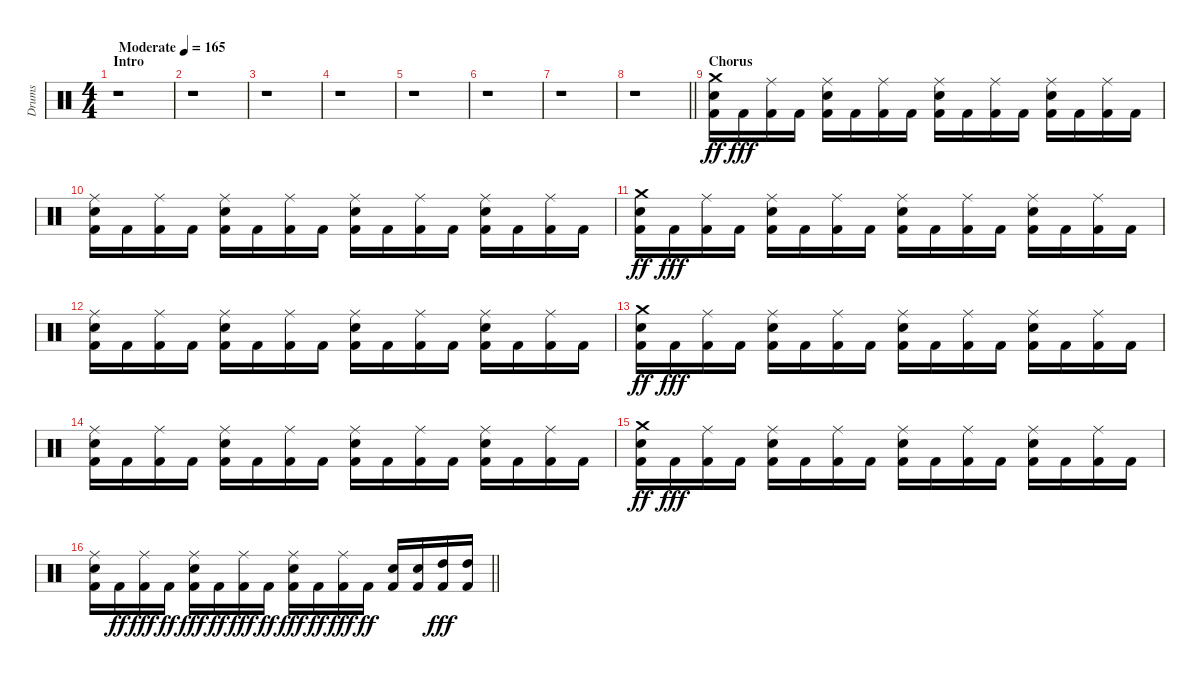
\track ("Drums" "Drums") {instrument percussion}
\staff {score}
\articulation defaults
\ts (4 4)
\section ("" "Intro")
\tempo (165 "Moderate")
\clef neutral
\ks c
r.1{dy ff} |
r.1 |
r.1 |
r.1 |
r.1 |
r.1 |
r.1 |
\barLineRight lightlight
r.1 |
\section ("" "Chorus")
("Kick (hit) 2" "Snare (hit) 2" "Crash medium (hit)").16 "Kick (hit) 2".16{dy fff} ("Kick (hit) 2" "Ride (middle)").16 "Kick (hit) 2".16 ("Kick (hit) 2" "Snare (hit) 2" "Ride (middle)").16 "Kick (hit) 2".16 ("Kick (hit) 2" "Ride (middle)").16 "Kick (hit) 2".16 ("Kick (hit) 2" "Snare (hit) 2" "Ride (middle)").16 "Kick (hit) 2".16 ("Kick (hit) 2" "Ride (middle)").16 "Kick (hit) 2".16 ("Kick (hit) 2" "Snare (hit) 2" "Ride (middle)").16 "Kick (hit) 2".16 ("Kick (hit) 2" "Ride (middle)").16 "Kick (hit) 2".16 |
("Kick (hit) 2" "Snare (hit) 2" "Ride (middle)").16 "Kick (hit) 2".16 ("Kick (hit) 2" "Ride (middle)").16 "Kick (hit) 2".16 ("Kick (hit) 2" "Snare (hit) 2" "Ride (middle)").16 "Kick (hit) 2".16 ("Kick (hit) 2" "Ride (middle)").16 "Kick (hit) 2".16 ("Kick (hit) 2" "Snare (hit) 2" "Ride (middle)").16 "Kick (hit) 2".16 ("Kick (hit) 2" "Ride (middle)").16 "Kick (hit) 2".16 ("Kick (hit) 2" "Snare (hit) 2" "Ride (middle)").16 "Kick (hit) 2".16 ("Kick (hit) 2" "Ride (middle)").16 "Kick (hit) 2".16 |
("Kick (hit) 2" "Snare (hit) 2" "Crash medium (hit)").16{dy ff} "Kick (hit) 2".16{dy fff} ("Kick (hit) 2" "Ride (middle)").16 "Kick (hit) 2".16 ("Kick (hit) 2" "Snare (hit) 2" "Ride (middle)").16 "Kick (hit) 2".16 ("Kick (hit) 2" "Ride (middle)").16 "Kick (hit) 2".16 ("Kick (hit) 2" "Snare (hit) 2" "Ride (middle)").16 "Kick (hit) 2".16 ("Kick (hit) 2" "Ride (middle)").16 "Kick (hit) 2".16 ("Kick (hit) 2" "Snare (hit) 2" "Ride (middle)").16 "Kick (hit) 2".16 ("Kick (hit) 2" "Ride (middle)").16 "Kick (hit) 2".16 |
("Kick (hit) 2" "Snare (hit) 2" "Ride (middle)").16 "Kick (hit) 2".16 ("Kick (hit) 2" "Ride (middle)").16 "Kick (hit) 2".16 ("Kick (hit) 2" "Snare (hit) 2" "Ride (middle)").16 "Kick (hit) 2".16 ("Kick (hit) 2" "Ride (middle)").16 "Kick (hit) 2".16 ("Kick (hit) 2" "Snare (hit) 2" "Ride (middle)").16 "Kick (hit) 2".16 ("Kick (hit) 2" "Ride (middle)").16 "Kick (hit) 2".16 ("Kick (hit) 2" "Snare (hit) 2" "Ride (middle)").16 "Kick (hit) 2".16 ("Kick (hit) 2" "Ride (middle)").16 "Kick (hit) 2".16 |
("Kick (hit) 2" "Snare (hit) 2" "Crash medium (hit)").16{dy ff} "Kick (hit) 2".16{dy fff} ("Kick (hit) 2" "Ride (middle)").16 "Kick (hit) 2".16 ("Kick (hit) 2" "Snare (hit) 2" "Ride (middle)").16 "Kick (hit) 2".16 ("Kick (hit) 2" "Ride (middle)").16 "Kick (hit) 2".16 ("Kick (hit) 2" "Snare (hit) 2" "Ride (middle)").16 "Kick (hit) 2".16 ("Kick (hit) 2" "Ride (middle)").16 "Kick (hit) 2".16 ("Kick (hit) 2" "Snare (hit) 2" "Ride (middle)").16 "Kick (hit) 2".16 ("Kick (hit) 2" "Ride (middle)").16 "Kick (hit) 2".16 |
("Kick (hit) 2" "Snare (hit) 2" "Ride (middle)").16 "Kick (hit) 2".16 ("Kick (hit) 2" "Ride (middle)").16 "Kick (hit) 2".16 ("Kick (hit) 2" "Snare (hit) 2" "Ride (middle)").16 "Kick (hit) 2".16 ("Kick (hit) 2" "Ride (middle)").16 "Kick (hit) 2".16 ("Kick (hit) 2" "Snare (hit) 2" "Ride (middle)").16 "Kick (hit) 2".16 ("Kick (hit) 2" "Ride (middle)").16 "Kick (hit) 2".16 ("Kick (hit) 2" "Snare (hit) 2" "Ride (middle)").16 "Kick (hit) 2".16 ("Kick (hit) 2" "Ride (middle)").16 "Kick (hit) 2".16 |
("Kick (hit) 2" "Snare (hit) 2" "Crash medium (hit)").16{dy ff} "Kick (hit) 2".16{dy fff} ("Kick (hit) 2" "Ride (middle)").16 "Kick (hit) 2".16 ("Kick (hit) 2" "Snare (hit) 2" "Ride (middle)").16 "Kick (hit) 2".16 ("Kick (hit) 2" "Ride (middle)").16 "Kick (hit) 2".16 ("Kick (hit) 2" "Snare (hit) 2" "Ride (middle)").16 "Kick (hit) 2".16 ("Kick (hit) 2" "Ride (middle)").16 "Kick (hit) 2".16 ("Kick (hit) 2" "Snare (hit) 2" "Ride (middle)").16 "Kick (hit) 2".16 ("Kick (hit) 2" "Ride (middle)").16 "Kick (hit) 2".16 |
\barLineRight lightlight
("Kick (hit) 2" "Snare (hit) 2" "Ride (middle)").16 "Kick (hit) 2".16{dy ff} ("Kick (hit) 2" "Ride (middle)").16{dy fff} "Kick (hit) 2".16{dy ff} ("Kick (hit) 2" "Snare (hit) 2" "Ride (middle)").16{dy fff} "Kick (hit) 2".16{dy ff} ("Kick (hit) 2" "Ride (middle)").16{dy fff} "Kick (hit) 2".16{dy ff} ("Kick (hit) 2" "Snare (hit) 2" "Ride (middle)").16{dy fff} "Kick (hit) 2".16{dy ff} ("Kick (hit) 2" "Ride (middle)").16{dy fff} "Kick (hit) 2".16{dy ff} ("Kick (hit) 2" "Snare (hit) 2").16 ("Kick (hit) 2" "Snare (hit) 2").16 ("Kick (hit) 2" "High Tom (hit)").16{dy fff} ("Kick (hit) 2" "High Tom (hit)").16
